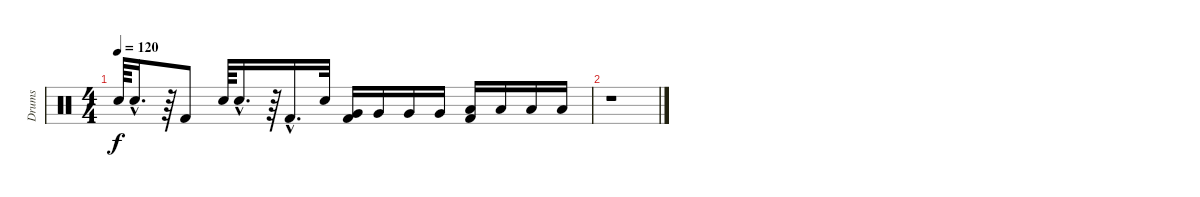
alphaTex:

\track ("Drums" "Drums") {instrument percussion}
\staff {score}
\articulation defaults
\ts (4 4)
\tempo 120
\clef neutral
\ks c "Electric Snare (hit)".64{dy f} "Electric Snare (hit)"{hac}.16{d}
r.64 "Kick (hit) 2".8 "Electric Snare (hit)".64 "Electric Snare (hit)"{hac}.16{d} r.64 "Kick (hit) 2"{hac}.16{d} "Electric Snare (hit)".32 ("Kick (hit) 2" "Very Low Tom (hit)").16 "Very Low Tom (hit)".16 "Very Low Tom (hit)".16 "Very Low Tom (hit)".16 ("Kick (hit) 2" "Low Floor Tom (hit)").16 "Low Floor Tom (hit)".16 "Low Floor Tom (hit)".16 "Low Floor Tom (hit)".16 |
r.1
